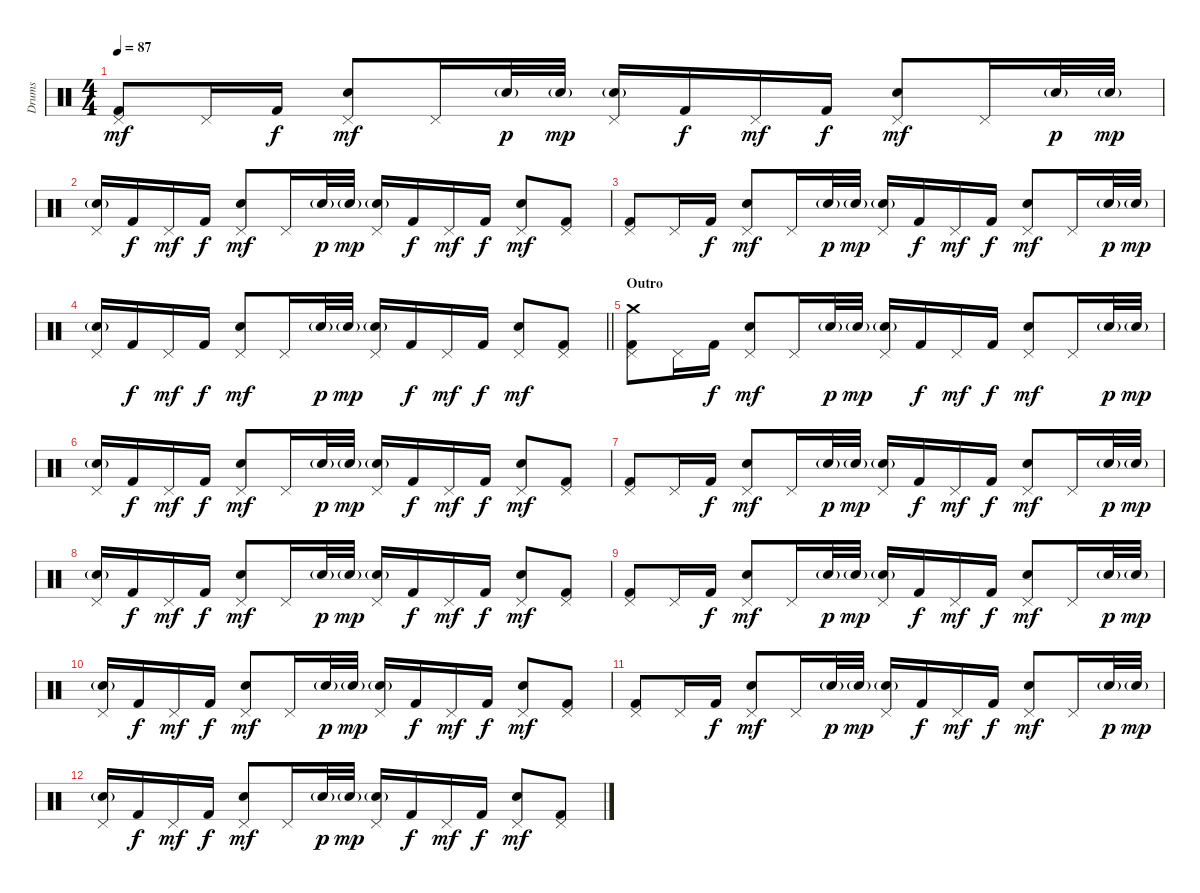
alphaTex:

\track ("Drums" "Drums") {instrument percussion}
\staff {score}
\articulation defaults
\ts (4 4)
\tempo 87
\clef neutral
\ks c
("Pedal Hi-Hat (hit)" "Kick (hit) 2").8{dy mf} "Pedal Hi-Hat (hit)".16 "Kick (hit) 2".16{dy f} ("Pedal Hi-Hat (hit)" "Electric Snare (hit)").8{dy mf} "Pedal Hi-Hat (hit)".16 "Electric Snare (hit)"{g}.32{dy p} "Electric Snare (hit)"{g}.32{dy mp} ("Pedal Hi-Hat (hit)" "Electric Snare (hit)"{g}).16 "Kick (hit) 2".16{dy f} "Pedal Hi-Hat (hit)".16{dy mf} "Kick (hit) 2".16{dy f} ("Pedal Hi-Hat (hit)" "Electric Snare (hit)").8{dy mf} "Pedal Hi-Hat (hit)".16 "Electric Snare (hit)"{g}.32{dy p} "Electric Snare (hit)"{g}.32{dy mp} |
("Pedal Hi-Hat (hit)" "Electric Snare (hit)"{g}).16 "Kick (hit) 2".16{dy f} "Pedal Hi-Hat (hit)".16{dy mf} "Kick (hit) 2".16{dy f} ("Pedal Hi-Hat (hit)" "Electric Snare (hit)").8{dy mf} "Pedal Hi-Hat (hit)".16 "Electric Snare (hit)"{g}.32{dy p} "Electric Snare (hit)"{g}.32{dy mp} ("Pedal Hi-Hat (hit)" "Electric Snare (hit)"{g}).16 "Kick (hit) 2".16{dy f} "Pedal Hi-Hat (hit)".16{dy mf} "Kick (hit) 2".16{dy f} ("Pedal Hi-Hat (hit)" "Electric Snare (hit)").8{dy mf} ("Pedal Hi-Hat (hit)" "Kick (hit) 2").8 |
("Pedal Hi-Hat (hit)" "Kick (hit) 2").8 "Pedal Hi-Hat (hit)".16 "Kick (hit) 2".16{dy f} ("Pedal Hi-Hat (hit)" "Electric Snare (hit)").8{dy mf} "Pedal Hi-Hat (hit)".16 "Electric Snare (hit)"{g}.32{dy p} "Electric Snare (hit)"{g}.32{dy mp} ("Pedal Hi-Hat (hit)" "Electric Snare (hit)"{g}).16 "Kick (hit) 2".16{dy f} "Pedal Hi-Hat (hit)".16{dy mf} "Kick (hit) 2".16{dy f} ("Pedal Hi-Hat (hit)" "Electric Snare (hit)").8{dy mf} "Pedal Hi-Hat (hit)".16 "Electric Snare (hit)"{g}.32{dy p} "Electric Snare (hit)"{g}.32{dy mp} |
\barLineRight lightlight
("Pedal Hi-Hat (hit)" "Electric Snare (hit)"{g}).16 "Kick (hit) 2".16{dy f} "Pedal Hi-Hat (hit)".16{dy mf} "Kick (hit) 2".16{dy f} ("Pedal Hi-Hat (hit)" "Electric Snare (hit)").8{dy mf} "Pedal Hi-Hat (hit)".16 "Electric Snare (hit)"{g}.32{dy p} "Electric Snare (hit)"{g}.32{dy mp} ("Pedal Hi-Hat (hit)" "Electric Snare (hit)"{g}).16 "Kick (hit) 2".16{dy f} "Pedal Hi-Hat (hit)".16{dy mf} "Kick (hit) 2".16{dy f} ("Pedal Hi-Hat (hit)" "Electric Snare (hit)").8{dy mf} ("Pedal Hi-Hat (hit)" "Kick (hit) 2").8 |
\section ("" "Outro")
("Pedal Hi-Hat (hit)" "Crash medium (hit)" "Kick (hit) 2").8 "Pedal Hi-Hat (hit)".16 "Kick (hit) 2".16{dy f} ("Pedal Hi-Hat (hit)" "Electric Snare (hit)").8{dy mf} "Pedal Hi-Hat (hit)".16 "Electric Snare (hit)"{g}.32{dy p} "Electric Snare (hit)"{g}.32{dy mp} ("Pedal Hi-Hat (hit)" "Electric Snare (hit)"{g}).16 "Kick (hit) 2".16{dy f} "Pedal Hi-Hat (hit)".16{dy mf} "Kick (hit) 2".16{dy f} ("Pedal Hi-Hat (hit)" "Electric Snare (hit)").8{dy mf} "Pedal Hi-Hat (hit)".16 "Electric Snare (hit)"{g}.32{dy p} "Electric Snare (hit)"{g}.32{dy mp} |
("Pedal Hi-Hat (hit)" "Electric Snare (hit)"{g}).16 "Kick (hit) 2".16{dy f} "Pedal Hi-Hat (hit)".16{dy mf} "Kick (hit) 2".16{dy f} ("Pedal Hi-Hat (hit)" "Electric Snare (hit)").8{dy mf} "Pedal Hi-Hat (hit)".16 "Electric Snare (hit)"{g}.32{dy p} "Electric Snare (hit)"{g}.32{dy mp} ("Pedal Hi-Hat (hit)" "Electric Snare (hit)"{g}).16 "Kick (hit) 2".16{dy f} "Pedal Hi-Hat (hit)".16{dy mf} "Kick (hit) 2".16{dy f} ("Pedal Hi-Hat (hit)" "Electric Snare (hit)").8{dy mf} ("Pedal Hi-Hat (hit)" "Kick (hit) 2").8 |
("Pedal Hi-Hat (hit)" "Kick (hit) 2").8 "Pedal Hi-Hat (hit)".16 "Kick (hit) 2".16{dy f} ("Pedal Hi-Hat (hit)" "Electric Snare (hit)").8{dy mf} "Pedal Hi-Hat (hit)".16 "Electric Snare (hit)"{g}.32{dy p} "Electric Snare (hit)"{g}.32{dy mp} ("Pedal Hi-Hat (hit)" "Electric Snare (hit)"{g}).16 "Kick (hit) 2".16{dy f} "Pedal Hi-Hat (hit)".16{dy mf} "Kick (hit) 2".16{dy f} ("Pedal Hi-Hat (hit)" "Electric Snare (hit)").8{dy mf} "Pedal Hi-Hat (hit)".16 "Electric Snare (hit)"{g}.32{dy p} "Electric Snare (hit)"{g}.32{dy mp} |
("Pedal Hi-Hat (hit)" "Electric Snare (hit)"{g}).16 "Kick (hit) 2".16{dy f} "Pedal Hi-Hat (hit)".16{dy mf} "Kick (hit) 2".16{dy f} ("Pedal Hi-Hat (hit)" "Electric Snare (hit)").8{dy mf} "Pedal Hi-Hat (hit)".16 "Electric Snare (hit)"{g}.32{dy p} "Electric Snare (hit)"{g}.32{dy mp} ("Pedal Hi-Hat (hit)" "Electric Snare (hit)"{g}).16 "Kick (hit) 2".16{dy f} "Pedal Hi-Hat (hit)".16{dy mf} "Kick (hit) 2".16{dy f} ("Pedal Hi-Hat (hit)" "Electric Snare (hit)").8{dy mf} ("Pedal Hi-Hat (hit)" "Kick (hit) 2").8 |
("Pedal Hi-Hat (hit)" "Kick (hit) 2").8{volume 0} "Pedal Hi-Hat (hit)".16 "Kick (hit) 2".16{dy f} ("Pedal Hi-Hat (hit)" "Electric Snare (hit)").8{dy mf} "Pedal Hi-Hat (hit)".16 "Electric Snare (hit)"{g}.32{dy p} "Electric Snare (hit)"{g}.32{dy mp} ("Pedal Hi-Hat (hit)" "Electric Snare (hit)"{g}).16 "Kick (hit) 2".16{dy f} "Pedal Hi-Hat (hit)".16{dy mf} "Kick (hit) 2".16{dy f} ("Pedal Hi-Hat (hit)" "Electric Snare (hit)").8{dy mf} "Pedal Hi-Hat (hit)".16 "Electric Snare (hit)"{g}.32{dy p} "Electric Snare (hit)"{g}.32{dy mp} |
("Pedal Hi-Hat (hit)" "Electric Snare (hit)"{g}).16 "Kick (hit) 2".16{dy f} "Pedal Hi-Hat (hit)".16{dy mf} "Kick (hit) 2".16{dy f} ("Pedal Hi-Hat (hit)" "Electric Snare (hit)").8{dy mf} "Pedal Hi-Hat (hit)".16 "Electric Snare (hit)"{g}.32{dy p} "Electric Snare (hit)"{g}.32{dy mp} ("Pedal Hi-Hat (hit)" "Electric Snare (hit)"{g}).16 "Kick (hit) 2".16{dy f} "Pedal Hi-Hat (hit)".16{dy mf} "Kick (hit) 2".16{dy f} ("Pedal Hi-Hat (hit)" "Electric Snare (hit)").8{dy mf} ("Pedal Hi-Hat (hit)" "Kick (hit) 2").8 |
("Pedal Hi-Hat (hit)" "Kick (hit) 2").8 "Pedal Hi-Hat (hit)".16 "Kick (hit) 2".16{dy f} ("Pedal Hi-Hat (hit)" "Electric Snare (hit)").8{dy mf} "Pedal Hi-Hat (hit)".16 "Electric Snare (hit)"{g}.32{dy p} "Electric Snare (hit)"{g}.32{dy mp} ("Pedal Hi-Hat (hit)" "Electric Snare (hit)"{g}).16 "Kick (hit) 2".16{dy f} "Pedal Hi-Hat (hit)".16{dy mf} "Kick (hit) 2".16{dy f} ("Pedal Hi-Hat (hit)" "Electric Snare (hit)").8{dy mf} "Pedal Hi-Hat (hit)".16 "Electric Snare (hit)"{g}.32{dy p} "Electric Snare (hit)"{g}.32{dy mp} |
("Pedal Hi-Hat (hit)" "Electric Snare (hit)"{g}).16 "Kick (hit) 2".16{dy f} "Pedal Hi-Hat (hit)".16{dy mf} "Kick (hit) 2".16{dy f} ("Pedal Hi-Hat (hit)" "Electric Snare (hit)").8{dy mf} "Pedal Hi-Hat (hit)".16 "Electric Snare (hit)"{g}.32{dy p} "Electric Snare (hit)"{g}.32{dy mp} ("Pedal Hi-Hat (hit)" "Electric Snare (hit)"{g}).16 "Kick (hit) 2".16{dy f} "Pedal Hi-Hat (hit)".16{dy mf} "Kick (hit) 2".16{dy f} ("Pedal Hi-Hat (hit)" "Electric Snare (hit)").8{dy mf} ("Pedal Hi-Hat (hit)" "Kick (hit) 2").8
